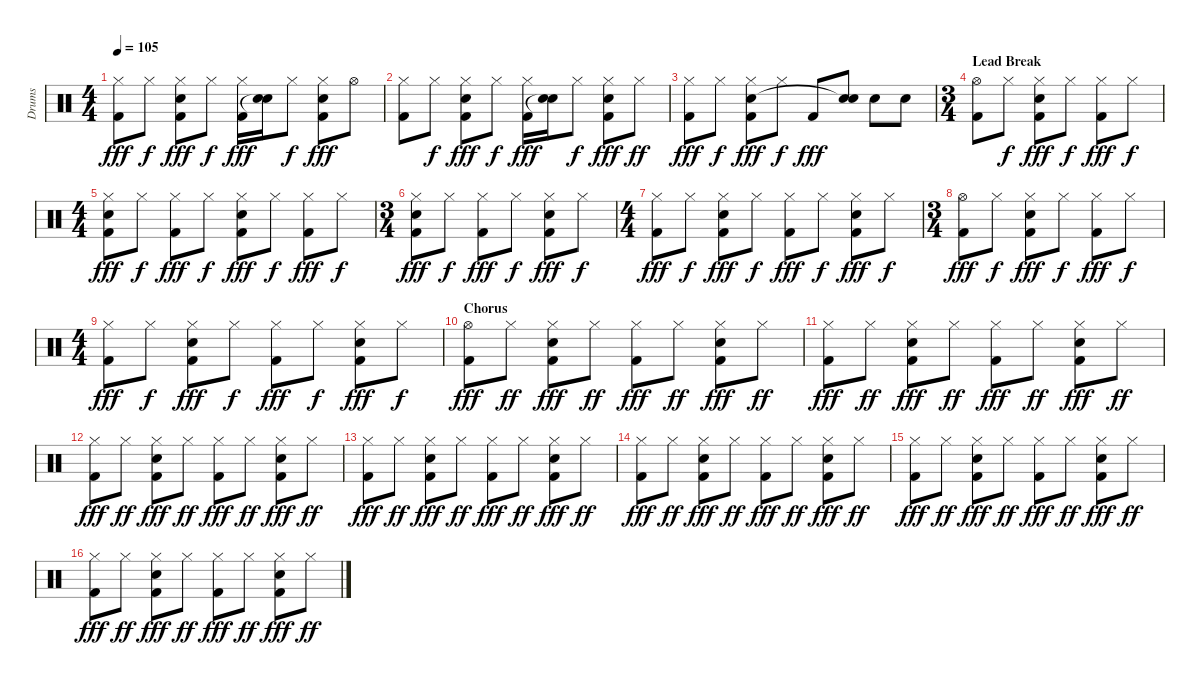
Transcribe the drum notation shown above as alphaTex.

\track ("Drums" "Drums") {instrument percussion}
\staff {score}
\articulation defaults
\ts (4 4)
\tempo 105
\clef neutral
\ks c
("Hi-Hat (closed)" "Kick (hit) 2").8{dy fff} "Hi-Hat (closed)".8{dy f} ("Hi-Hat (closed)" "Electric Snare (hit)" "Kick (hit) 2").8{dy fff} "Hi-Hat (closed)".8{dy f} ("Hi-Hat (closed)" "Kick (hit) 2").16{dy fff} ("Electric Snare (hit)" "Snare (hit)"{t}).16 "Hi-Hat (closed)".8{dy f} ("Hi-Hat (closed)" "Electric Snare (hit)" "Kick (hit) 2").8{dy fff} "Hi-Hat (open)".8 |
("Hi-Hat (closed)" "Kick (hit) 2").8 "Hi-Hat (closed)".8{dy f} ("Hi-Hat (closed)" "Electric Snare (hit)" "Kick (hit) 2").8{dy fff} "Hi-Hat (closed)".8{dy f} ("Hi-Hat (closed)" "Kick (hit) 2").16{dy fff} ("Electric Snare (hit)" "Snare (hit)"{t}).16 "Hi-Hat (closed)".8{dy f} ("Hi-Hat (closed)" "Electric Snare (hit)" "Kick (hit) 2").8{dy fff} "Hi-Hat (closed)".8{dy ff} |
("Hi-Hat (closed)" "Kick (hit) 2").8{dy fff} "Hi-Hat (closed)".8{dy f} ("Hi-Hat (closed)" "Electric Snare (hit)" "Kick (hit) 2").8{dy fff} "Hi-Hat (closed)".8{dy f} "Kick (hit) 2".8{dy fff} ("Electric Snare (hit)" "Snare (hit)"{t}).8 "Electric Snare (hit)".8 "Electric Snare (hit)".8 |
\ts (3 4)
\section ("" "Lead Break")
("Hi-Hat (open)" "Kick (hit) 2").8 "Hi-Hat (closed)".8{dy f} ("Hi-Hat (closed)" "Electric Snare (hit)" "Kick (hit) 2").8{dy fff} "Hi-Hat (closed)".8{dy f} ("Hi-Hat (closed)" "Kick (hit) 2").8{dy fff} "Hi-Hat (closed)".8{dy f} |
\ts (4 4)
("Hi-Hat (closed)" "Electric Snare (hit)" "Kick (hit) 2").8{dy fff} "Hi-Hat (closed)".8{dy f} ("Hi-Hat (closed)" "Kick (hit) 2").8{dy fff} "Hi-Hat (closed)".8{dy f} ("Hi-Hat (closed)" "Electric Snare (hit)" "Kick (hit) 2").8{dy fff} "Hi-Hat (closed)".8{dy f} ("Hi-Hat (closed)" "Kick (hit) 2").8{dy fff} "Hi-Hat (closed)".8{dy f} |
\ts (3 4)
("Hi-Hat (closed)" "Electric Snare (hit)" "Kick (hit) 2").8{dy fff} "Hi-Hat (closed)".8{dy f} ("Hi-Hat (closed)" "Kick (hit) 2").8{dy fff} "Hi-Hat (closed)".8{dy f} ("Hi-Hat (closed)" "Electric Snare (hit)" "Kick (hit) 2").8{dy fff} "Hi-Hat (closed)".8{dy f} |
\ts (4 4)
("Hi-Hat (closed)" "Kick (hit) 2").8{dy fff} "Hi-Hat (closed)".8{dy f} ("Hi-Hat (closed)" "Electric Snare (hit)" "Kick (hit) 2").8{dy fff} "Hi-Hat (closed)".8{dy f} ("Hi-Hat (closed)" "Kick (hit) 2").8{dy fff} "Hi-Hat (closed)".8{dy f} ("Hi-Hat (closed)" "Electric Snare (hit)" "Kick (hit) 2").8{dy fff} "Hi-Hat (closed)".8{dy f} |
\ts (3 4)
("Hi-Hat (open)" "Kick (hit) 2").8{dy fff} "Hi-Hat (closed)".8{dy f} ("Hi-Hat (closed)" "Electric Snare (hit)" "Kick (hit) 2").8{dy fff} "Hi-Hat (closed)".8{dy f} ("Hi-Hat (closed)" "Kick (hit) 2").8{dy fff} "Hi-Hat (closed)".8{dy f} |
\ts (4 4)
("Hi-Hat (closed)" "Kick (hit) 2").8{dy fff} "Hi-Hat (closed)".8{dy f} ("Hi-Hat (closed)" "Electric Snare (hit)" "Kick (hit) 2").8{dy fff} "Hi-Hat (closed)".8{dy f} ("Hi-Hat (closed)" "Kick (hit) 2").8{dy fff} "Hi-Hat (closed)".8{dy f} ("Hi-Hat (closed)" "Electric Snare (hit)" "Kick (hit) 2").8{dy fff} "Hi-Hat (closed)".8{dy f} |
\section ("" "Chorus")
("Hi-Hat (open)" "Kick (hit) 2").8{dy fff} "Hi-Hat (closed)".8{dy ff} ("Hi-Hat (closed)" "Electric Snare (hit)" "Kick (hit) 2").8{dy fff} "Hi-Hat (closed)".8{dy ff} ("Hi-Hat (closed)" "Kick (hit) 2").8{dy fff} "Hi-Hat (closed)".8{dy ff} ("Hi-Hat (closed)" "Electric Snare (hit)" "Kick (hit) 2").8{dy fff} "Hi-Hat (closed)".8{dy ff} |
("Hi-Hat (closed)" "Kick (hit) 2").8{dy fff} "Hi-Hat (closed)".8{dy ff} ("Hi-Hat (closed)" "Electric Snare (hit)" "Kick (hit) 2").8{dy fff} "Hi-Hat (closed)".8{dy ff} ("Hi-Hat (closed)" "Kick (hit) 2").8{dy fff} "Hi-Hat (closed)".8{dy ff} ("Hi-Hat (closed)" "Electric Snare (hit)" "Kick (hit) 2").8{dy fff} "Hi-Hat (closed)".8{dy ff} |
("Hi-Hat (closed)" "Kick (hit) 2").8{dy fff} "Hi-Hat (closed)".8{dy ff} ("Hi-Hat (closed)" "Electric Snare (hit)" "Kick (hit) 2").8{dy fff} "Hi-Hat (closed)".8{dy ff} ("Hi-Hat (closed)" "Kick (hit) 2").8{dy fff} "Hi-Hat (closed)".8{dy ff} ("Hi-Hat (closed)" "Electric Snare (hit)" "Kick (hit) 2").8{dy fff} "Hi-Hat (closed)".8{dy ff} |
("Hi-Hat (closed)" "Kick (hit) 2").8{dy fff} "Hi-Hat (closed)".8{dy ff} ("Hi-Hat (closed)" "Electric Snare (hit)" "Kick (hit) 2").8{dy fff} "Hi-Hat (closed)".8{dy ff} ("Hi-Hat (closed)" "Kick (hit) 2").8{dy fff} "Hi-Hat (closed)".8{dy ff} ("Hi-Hat (closed)" "Electric Snare (hit)" "Kick (hit) 2").8{dy fff} "Hi-Hat (closed)".8{dy ff} |
("Hi-Hat (closed)" "Kick (hit) 2").8{dy fff} "Hi-Hat (closed)".8{dy ff} ("Hi-Hat (closed)" "Electric Snare (hit)" "Kick (hit) 2").8{dy fff} "Hi-Hat (closed)".8{dy ff} ("Hi-Hat (closed)" "Kick (hit) 2").8{dy fff} "Hi-Hat (closed)".8{dy ff} ("Hi-Hat (closed)" "Electric Snare (hit)" "Kick (hit) 2").8{dy fff} "Hi-Hat (closed)".8{dy ff} |
("Hi-Hat (closed)" "Kick (hit) 2").8{dy fff} "Hi-Hat (closed)".8{dy ff} ("Hi-Hat (closed)" "Electric Snare (hit)" "Kick (hit) 2").8{dy fff} "Hi-Hat (closed)".8{dy ff} ("Hi-Hat (closed)" "Kick (hit) 2").8{dy fff} "Hi-Hat (closed)".8{dy ff} ("Hi-Hat (closed)" "Electric Snare (hit)" "Kick (hit) 2").8{dy fff} "Hi-Hat (closed)".8{dy ff} |
("Hi-Hat (closed)" "Kick (hit) 2").8{dy fff} "Hi-Hat (closed)".8{dy ff} ("Hi-Hat (closed)" "Electric Snare (hit)" "Kick (hit) 2").8{dy fff} "Hi-Hat (closed)".8{dy ff} ("Hi-Hat (closed)" "Kick (hit) 2").8{dy fff} "Hi-Hat (closed)".8{dy ff} ("Hi-Hat (closed)" "Electric Snare (hit)" "Kick (hit) 2").8{dy fff} "Hi-Hat (closed)".8{dy ff}
